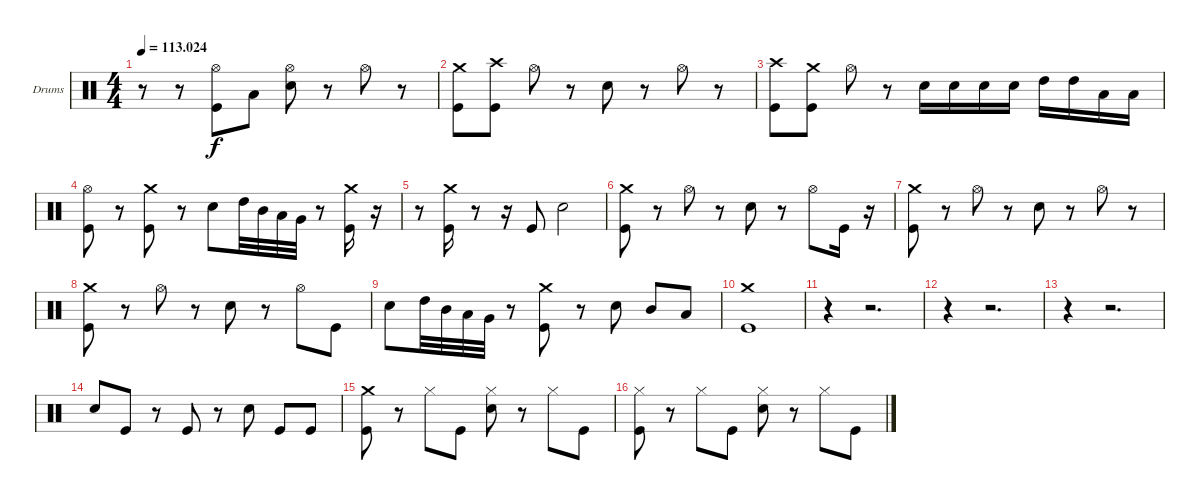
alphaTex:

\bracketExtendMode groupsimilarinstruments
\firstSystemTrackNameOrientation horizontal
\otherSystemsTrackNameOrientation horizontal
\track ("Ударные (Кривенков Д)" "Drums") {instrument percussion}
\staff {score}
\articulation defaults
\ts (4 4)
\tempo
113.024
\accidentals auto
\clef neutral
\ottava regular
\simile none
\ks c
r.8{dy f} r.8 ("Hi-Hat (open)" "Kick (hit)").8 "Low Tom (hit)".8 ("Hi-Hat (open)" "Snare (hit) 2").8 r.8 "Hi-Hat (open)".8 r.8 |
("Crash medium (hit)" "Kick (hit)").8 ("Crash high (hit)" "Kick (hit)").8 "Hi-Hat (open)".8 r.8 "Snare (hit) 2".8 r.8 "Hi-Hat (open)".8 r.8 |
("Crash high (hit)" "Kick (hit)").8 ("Crash medium (hit)" "Kick (hit)").8 "Hi-Hat (open)".8 r.8 "Snare (hit) 2".16 "Snare (hit) 2".16 "Snare (hit) 2".16 "Snare (hit) 2".16 "High Tom (hit)".16 "High Tom (hit)".16 "Low Tom (hit)".16 "Low Tom (hit)".16 |
("Hi-Hat (open)" "Kick (hit)").8 r.8 ("Crash medium (hit)" "Kick (hit)").8 r.8 "Snare (hit) 2".8 "High Tom (hit)".32 "Mid Tom (hit)".32 "Low Tom (hit)".32 "Very Low Tom (hit)".32 r.8 ("Crash medium (hit)" "Kick (hit)").16 r.16 |
r.8 ("Crash medium (hit)" "Kick (hit)").16 r.8 r.16 "Kick (hit)".8 "Snare (hit) 2".2 |
("Crash medium (hit)" "Kick (hit)").8 r.8 "Hi-Hat (open)".8 r.8 "Snare (hit) 2".8 r.8 "Hi-Hat (open)".8 "Kick (hit)".16 r.16 |
("Crash medium (hit)" "Kick (hit)").8 r.8 "Hi-Hat (open)".8 r.8 "Snare (hit) 2".8 r.8 "Hi-Hat (open)".8 r.8 |
("Crash medium (hit)" "Kick (hit)").8 r.8 "Hi-Hat (open)".8 r.8 "Snare (hit) 2".8 r.8 "Hi-Hat (open)".8 "Kick (hit)".8 |
"Snare (hit) 2".8 "High Tom (hit)".32 "Mid Tom (hit)".32 "Low Tom (hit)".32 "Very Low Tom (hit)".32 r.8 ("Crash medium (hit)" "Kick (hit)").8 r.8 "Snare (hit) 2".8 "Mid Tom (hit)".8 "Low Tom (hit)".8 |
("Crash medium (hit)" "Kick (hit)").1 |
r.4 r.2{d} |
r.4 r.2{d} |
r.4 r.2{d} |
"Snare (hit) 2".8 "Kick (hit)".8 r.8 "Kick (hit)".8 r.8 "Snare (hit) 2".8 "Kick (hit)".8 "Kick (hit)".8 |
("Crash medium (hit)" "Kick (hit)").8 r.8 "Hi-Hat (closed)".8 "Kick (hit)".8 ("Hi-Hat (closed)" "Snare (hit) 2").8 r.8 "Hi-Hat (closed)".8 "Kick (hit)".8 |
("Hi-Hat (closed)" "Kick (hit)").8 r.8 "Hi-Hat (closed)".8 "Kick (hit)".8 ("Hi-Hat (closed)" "Snare (hit) 2").8 r.8 "Hi-Hat (closed)".8 "Kick (hit)".8
